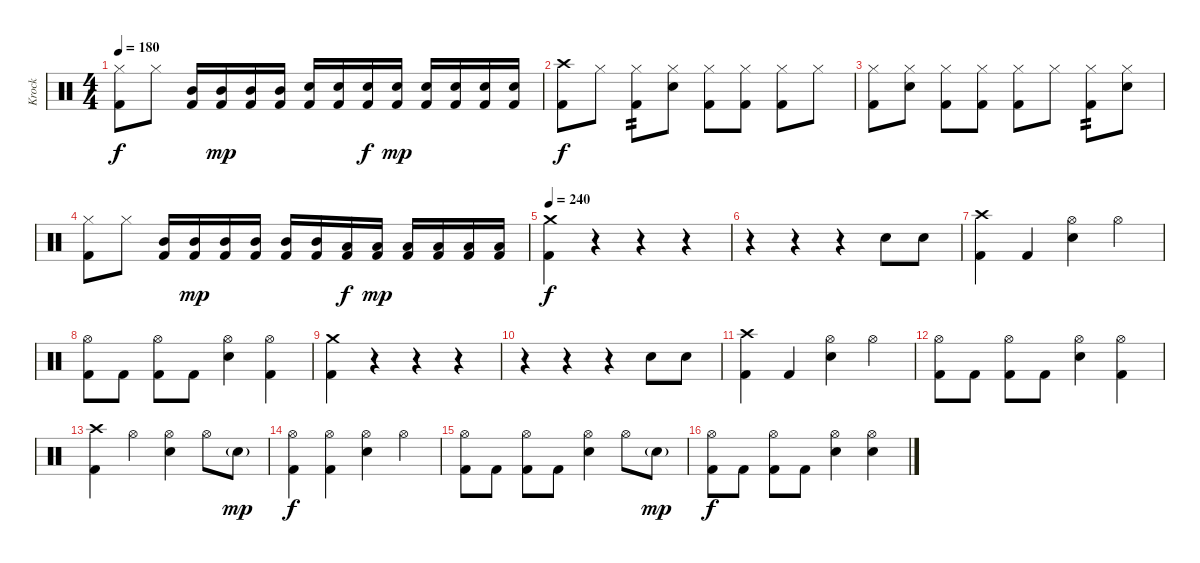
\track ("Krock" "Krock") {instrument percussion}
\staff {score}
\articulation defaults
\ts (4 4)
\tempo 180
\clef neutral
\ks c
("Kick (hit) 2" "Hi-Hat (closed)").8{dy f} "Hi-Hat (closed)".8 ("Mid Tom (hit)" "Kick (hit) 2").16 ("Mid Tom (hit)" "Kick (hit) 2").16{dy mp} ("Mid Tom (hit)" "Kick (hit) 2").16 ("Mid Tom (hit)" "Kick (hit) 2").16 ("Electric Snare (hit)" "Kick (hit) 2").16 ("Electric Snare (hit)" "Kick (hit) 2").16 ("Electric Snare (hit)" "Kick (hit) 2").16{dy f} ("Electric Snare (hit)" "Kick (hit) 2").16{dy mp} ("Electric Snare (hit)" "Kick (hit) 2").16 ("Electric Snare (hit)" "Kick (hit) 2").16 ("Electric Snare (hit)" "Kick (hit) 2").16 ("Electric Snare (hit)" "Kick (hit) 2").16 |
("Kick (hit) 2" "Crash high (hit)").8{dy f} "Hi-Hat (closed)".8 ("Kick (hit) 2" "Hi-Hat (closed)").8{tp 2} ("Electric Snare (hit)" "Hi-Hat (closed)").8 ("Kick (hit) 2" "Hi-Hat (closed)").8 ("Kick (hit) 2" "Hi-Hat (closed)").8 ("Kick (hit) 2" "Hi-Hat (closed)").8 "Hi-Hat (closed)".8 |
("Kick (hit) 2" "Hi-Hat (closed)").8 ("Electric Snare (hit)" "Hi-Hat (closed)").8 ("Kick (hit) 2" "Hi-Hat (closed)").8 ("Kick (hit) 2" "Hi-Hat (closed)").8 ("Kick (hit) 2" "Hi-Hat (closed)").8 "Hi-Hat (closed)".8 ("Kick (hit) 2" "Hi-Hat (closed)").8{tp 2} ("Electric Snare (hit)" "Hi-Hat (closed)").8 |
("Kick (hit) 2" "Hi-Hat (closed)").8 "Hi-Hat (closed)".8 ("Mid Tom (hit)" "Kick (hit) 2").16 ("Mid Tom (hit)" "Kick (hit) 2").16{dy mp} ("Mid Tom (hit)" "Kick (hit) 2").16 ("Mid Tom (hit)" "Kick (hit) 2").16 ("Mid Tom (hit)" "Kick (hit) 2").16 ("Mid Tom (hit)" "Kick (hit) 2").16 ("Low Tom (hit)" "Kick (hit) 2").16{dy f} ("Low Tom (hit)" "Kick (hit) 2").16{dy mp} ("Low Tom (hit)" "Kick (hit) 2").16 ("Low Tom (hit)" "Kick (hit) 2").16 ("Low Tom (hit)" "Kick (hit) 2").16 ("Low Tom (hit)" "Kick (hit) 2").16 |
\tempo 240
("Crash medium (hit)" "Kick (hit) 2").4{dy f} r.4 r.4 r.4 |
r.4 r.4 r.4 "Electric Snare (hit)".8 "Electric Snare (hit)".8 |
("Crash high (hit)" "Kick (hit) 2").4 "Kick (hit) 2".4 ("Hi-Hat (open)" "Electric Snare (hit)").4 "Hi-Hat (open)".4 |
("Hi-Hat (open)" "Kick (hit) 2").8 "Kick (hit) 2".8 ("Hi-Hat (open)" "Kick (hit) 2").8 "Kick (hit) 2".8 ("Hi-Hat (open)" "Electric Snare (hit)").4 ("Hi-Hat (open)" "Kick (hit) 2").4 |
("Crash medium (hit)" "Kick (hit) 2").4 r.4 r.4 r.4 |
r.4 r.4 r.4 "Electric Snare (hit)".8 "Electric Snare (hit)".8 |
("Crash high (hit)" "Kick (hit) 2").4 "Kick (hit) 2".4 ("Hi-Hat (open)" "Electric Snare (hit)").4 "Hi-Hat (open)".4 |
("Hi-Hat (open)" "Kick (hit) 2").8 "Kick (hit) 2".8 ("Hi-Hat (open)" "Kick (hit) 2").8 "Kick (hit) 2".8 ("Hi-Hat (open)" "Electric Snare (hit)").4 ("Hi-Hat (open)" "Kick (hit) 2").4 |
("Kick (hit) 2" "Crash high (hit)").4 "Hi-Hat (open)".4 ("Electric Snare (hit)" "Hi-Hat (open)").4 "Hi-Hat (open)".8 "Electric Snare (hit)"{g}.8{dy mp} |
("Kick (hit) 2" "Hi-Hat (open)").4{dy f} ("Kick (hit) 2" "Hi-Hat (open)").4 ("Electric Snare (hit)" "Hi-Hat (open)").4 "Hi-Hat (open)".4 |
("Kick (hit) 2" "Hi-Hat (open)").8 "Kick (hit) 2".8 ("Kick (hit) 2" "Hi-Hat (open)").8 "Kick (hit) 2".8 ("Electric Snare (hit)" "Hi-Hat (open)").4 "Hi-Hat (open)".8 "Electric Snare (hit)"{g}.8{dy mp} |
("Kick (hit) 2" "Hi-Hat (open)").8{dy f} "Kick (hit) 2".8 ("Kick (hit) 2" "Hi-Hat (open)").8 "Kick (hit) 2".8 ("Electric Snare (hit)" "Hi-Hat (open)").4 ("Electric Snare (hit)" "Hi-Hat (open)").4
